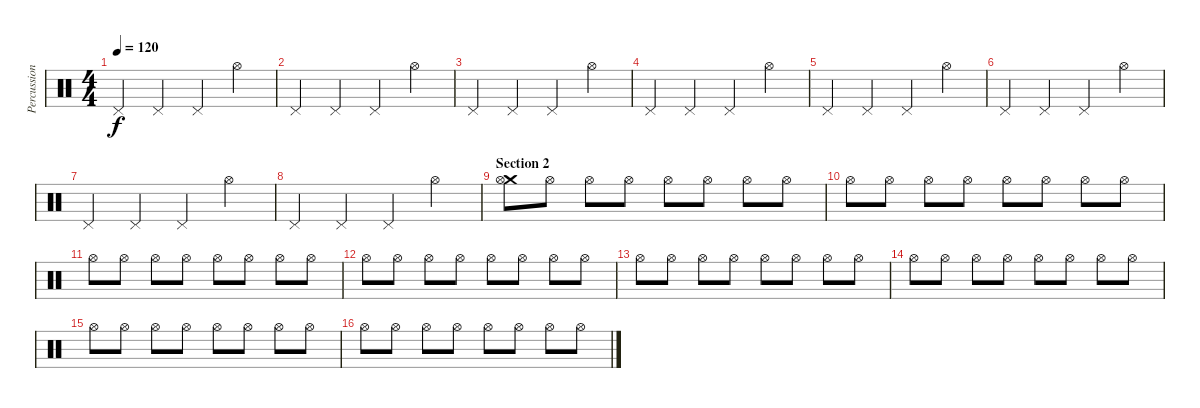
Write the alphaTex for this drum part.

\track ("Percussions" "Percussion") {instrument percussion}
\staff {score}
\articulation defaults
\ts (4 4)
\tempo 120
\clef neutral
\ks c "Pedal Hi-Hat (hit)".4{dy f} "Pedal Hi-Hat (hit)".4 "Pedal Hi-Hat (hit)".4 "Hi-Hat (open)".4
|
"Pedal Hi-Hat (hit)".4 "Pedal Hi-Hat (hit)".4 "Pedal Hi-Hat (hit)".4 "Hi-Hat (open)".4 |
"Pedal Hi-Hat (hit)".4 "Pedal Hi-Hat (hit)".4 "Pedal Hi-Hat (hit)".4 "Hi-Hat (open)".4 |
"Pedal Hi-Hat (hit)".4 "Pedal Hi-Hat (hit)".4 "Pedal Hi-Hat (hit)".4 "Hi-Hat (open)".4 |
"Pedal Hi-Hat (hit)".4 "Pedal Hi-Hat (hit)".4 "Pedal Hi-Hat (hit)".4 "Hi-Hat (open)".4 |
"Pedal Hi-Hat (hit)".4 "Pedal Hi-Hat (hit)".4 "Pedal Hi-Hat (hit)".4 "Hi-Hat (open)".4 |
"Pedal Hi-Hat (hit)".4 "Pedal Hi-Hat (hit)".4 "Pedal Hi-Hat (hit)".4 "Hi-Hat (open)".4 |
"Pedal Hi-Hat (hit)".4 "Pedal Hi-Hat (hit)".4 "Pedal Hi-Hat (hit)".4 "Hi-Hat (open)".4 |
\section ("" "Section 2")
("Crash medium (hit)" "Hi-Hat (open)").8 "Hi-Hat (open)".8 "Hi-Hat (open)".8 "Hi-Hat (open)".8 "Hi-Hat (open)".8 "Hi-Hat (open)".8 "Hi-Hat (open)".8 "Hi-Hat (open)".8 |
"Hi-Hat (open)".8 "Hi-Hat (open)".8 "Hi-Hat (open)".8 "Hi-Hat (open)".8 "Hi-Hat (open)".8 "Hi-Hat (open)".8 "Hi-Hat (open)".8 "Hi-Hat (open)".8 |
"Hi-Hat (open)".8 "Hi-Hat (open)".8 "Hi-Hat (open)".8 "Hi-Hat (open)".8 "Hi-Hat (open)".8 "Hi-Hat (open)".8 "Hi-Hat (open)".8 "Hi-Hat (open)".8 |
"Hi-Hat (open)".8 "Hi-Hat (open)".8 "Hi-Hat (open)".8 "Hi-Hat (open)".8 "Hi-Hat (open)".8 "Hi-Hat (open)".8 "Hi-Hat (open)".8 "Hi-Hat (open)".8 |
"Hi-Hat (open)".8 "Hi-Hat (open)".8 "Hi-Hat (open)".8 "Hi-Hat (open)".8 "Hi-Hat (open)".8 "Hi-Hat (open)".8 "Hi-Hat (open)".8 "Hi-Hat (open)".8 |
"Hi-Hat (open)".8 "Hi-Hat (open)".8 "Hi-Hat (open)".8 "Hi-Hat (open)".8 "Hi-Hat (open)".8 "Hi-Hat (open)".8 "Hi-Hat (open)".8 "Hi-Hat (open)".8 |
"Hi-Hat (open)".8 "Hi-Hat (open)".8 "Hi-Hat (open)".8 "Hi-Hat (open)".8 "Hi-Hat (open)".8 "Hi-Hat (open)".8 "Hi-Hat (open)".8 "Hi-Hat (open)".8 |
"Hi-Hat (open)".8 "Hi-Hat (open)".8 "Hi-Hat (open)".8 "Hi-Hat (open)".8 "Hi-Hat (open)".8 "Hi-Hat (open)".8 "Hi-Hat (open)".8 "Hi-Hat (open)".8
